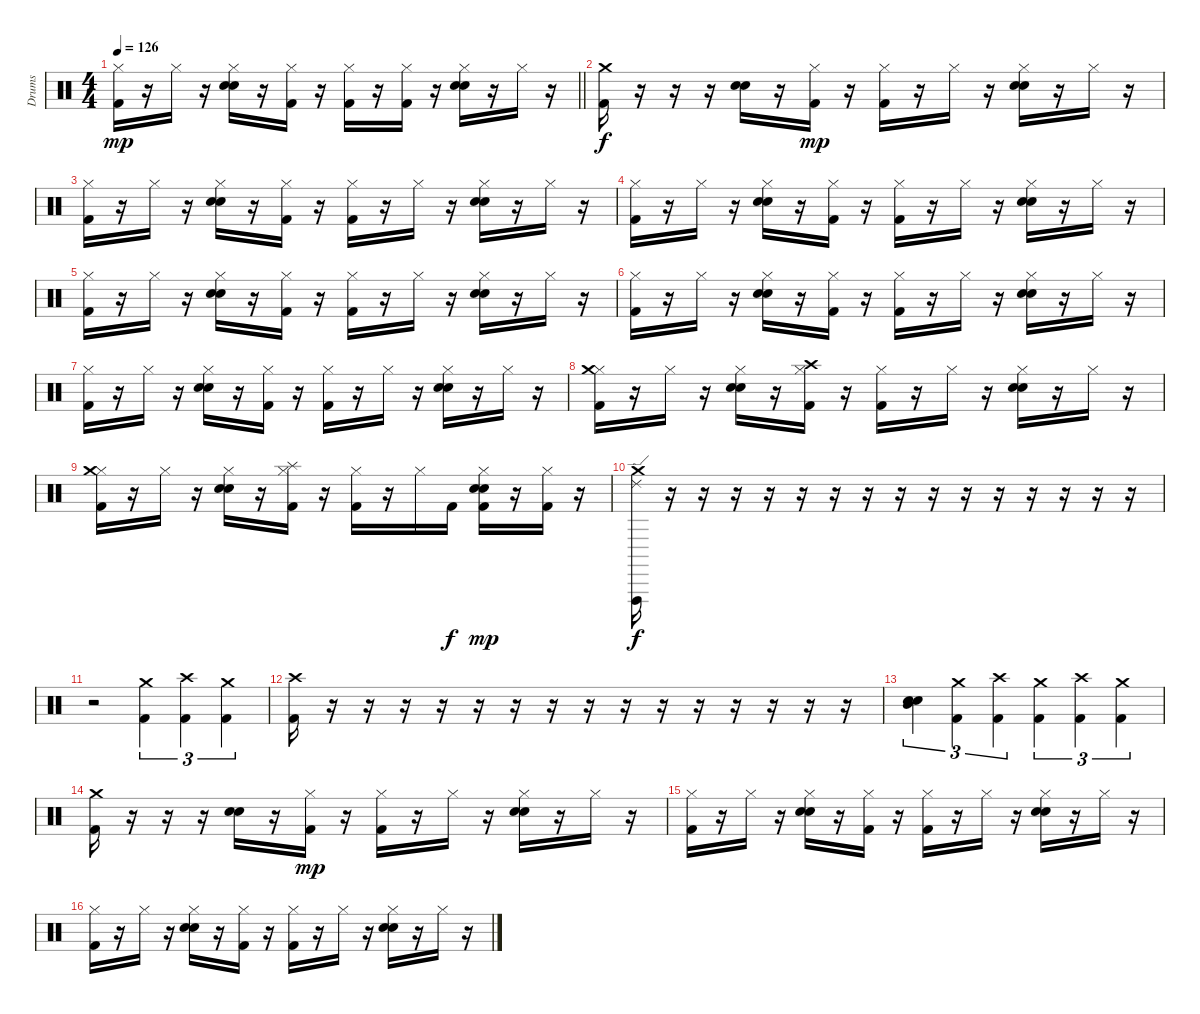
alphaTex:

\track ("Drums" "Drums") {instrument percussion}
\staff {score}
\articulation defaults
\ts (4 4)
\tempo 126
\clef neutral
\barLineRight lightlight
\ks c
("Hi-Hat (closed)" "Kick (hit) 2").16{dy mp} r.16 "Hi-Hat (closed)".16 r.16 ("Hi-Hat (closed)" "Snare (hit) 2" "Electric Snare (hit)").16 r.16 ("Hi-Hat (closed)" "Kick (hit) 2").16 r.16 ("Hi-Hat (closed)" "Kick (hit) 2").16 r.16 ("Hi-Hat (closed)" "Kick (hit) 2").16 r.16 ("Hi-Hat (closed)" "Snare (hit) 2" "Electric Snare (hit)").16 r.16 "Hi-Hat (closed)".16 r.16 |
\section ("" "")
("Crash medium (hit)" "Kick (hit) 2").16{dy f} r.16 r.16 r.16 ("Snare (hit) 2" "Electric Snare (hit)").16 r.16 ("Hi-Hat (closed)" "Kick (hit) 2").16{dy mp} r.16 ("Hi-Hat (closed)" "Kick (hit) 2").16 r.16 "Hi-Hat (closed)".16 r.16 ("Hi-Hat (closed)" "Snare (hit) 2" "Electric Snare (hit)").16 r.16 "Hi-Hat (closed)".16 r.16 |
("Hi-Hat (closed)" "Kick (hit) 2").16 r.16 "Hi-Hat (closed)".16 r.16 ("Hi-Hat (closed)" "Snare (hit) 2" "Electric Snare (hit)").16 r.16 ("Hi-Hat (closed)" "Kick (hit) 2").16 r.16 ("Hi-Hat (closed)" "Kick (hit) 2").16 r.16 "Hi-Hat (closed)".16 r.16 ("Hi-Hat (closed)" "Snare (hit) 2" "Electric Snare (hit)").16 r.16 "Hi-Hat (closed)".16 r.16 |
("Hi-Hat (closed)" "Kick (hit) 2").16 r.16 "Hi-Hat (closed)".16 r.16 ("Hi-Hat (closed)" "Snare (hit) 2" "Electric Snare (hit)").16 r.16 ("Hi-Hat (closed)" "Kick (hit) 2").16 r.16 ("Hi-Hat (closed)" "Kick (hit) 2").16 r.16 "Hi-Hat (closed)".16 r.16 ("Hi-Hat (closed)" "Snare (hit) 2" "Electric Snare (hit)").16 r.16 "Hi-Hat (closed)".16 r.16 |
("Hi-Hat (closed)" "Kick (hit) 2").16 r.16 "Hi-Hat (closed)".16 r.16 ("Hi-Hat (closed)" "Snare (hit) 2" "Electric Snare (hit)").16 r.16 ("Hi-Hat (closed)" "Kick (hit) 2").16 r.16 ("Hi-Hat (closed)" "Kick (hit) 2").16 r.16 "Hi-Hat (closed)".16 r.16 ("Hi-Hat (closed)" "Snare (hit) 2" "Electric Snare (hit)").16 r.16 "Hi-Hat (closed)".16 r.16 |
("Hi-Hat (closed)" "Kick (hit) 2").16 r.16 "Hi-Hat (closed)".16 r.16 ("Hi-Hat (closed)" "Snare (hit) 2" "Electric Snare (hit)").16 r.16 ("Hi-Hat (closed)" "Kick (hit) 2").16 r.16 ("Hi-Hat (closed)" "Kick (hit) 2").16 r.16 "Hi-Hat (closed)".16 r.16 ("Hi-Hat (closed)" "Snare (hit) 2" "Electric Snare (hit)").16 r.16 "Hi-Hat (closed)".16 r.16 |
("Hi-Hat (closed)" "Kick (hit) 2").16 r.16 "Hi-Hat (closed)".16 r.16 ("Hi-Hat (closed)" "Snare (hit) 2" "Electric Snare (hit)").16 r.16 ("Hi-Hat (closed)" "Kick (hit) 2").16 r.16 ("Hi-Hat (closed)" "Kick (hit) 2").16 r.16 "Hi-Hat (closed)".16 r.16 ("Hi-Hat (closed)" "Snare (hit) 2" "Electric Snare (hit)").16 r.16 "Hi-Hat (closed)".16 r.16 |
("Hi-Hat (closed)" "Crash medium (hit)" "Kick (hit) 2").16 r.16 "Hi-Hat (closed)".16 r.16 ("Hi-Hat (closed)" "Snare (hit) 2" "Electric Snare (hit)").16 r.16 ("Hi-Hat (closed)" "Crash high (hit)" "Kick (hit) 2").16 r.16 ("Hi-Hat (closed)" "Kick (hit) 2").16 r.16 "Hi-Hat (closed)".16 r.16 ("Hi-Hat (closed)" "Snare (hit) 2" "Electric Snare (hit)").16 r.16 "Hi-Hat (closed)".16 r.16 |
("Hi-Hat (closed)" "Crash medium (hit)" "Kick (hit) 2").16 r.16 "Hi-Hat (closed)".16 r.16 ("Hi-Hat (closed)" "Snare (hit) 2" "Electric Snare (hit)").16 r.16 ("Hi-Hat (closed)" "Splash (hit)" "Kick (hit) 2").16 r.16 ("Hi-Hat (closed)" "Kick (hit) 2").16 r.16 "Hi-Hat (closed)".16 "Kick (hit) 2".16{dy f} ("Hi-Hat (closed)" "Snare (hit) 2" "Electric Snare (hit)" "Kick (hit) 2").16{dy mp} r.16 ("Hi-Hat (closed)" "Kick (hit) 2").16 r.16 |
("Vibraslap (hit)" "Crash medium (hit)" "Ride (edge) 2").16{dy f} r.16 r.16 r.16 r.16 r.16 r.16 r.16 r.16 r.16 r.16 r.16 r.16 r.16 r.16 r.16 |
r.2 ("Crash medium (hit)" "Kick (hit) 2").4{tu (3 2)} ("Crash high (hit)" "Kick (hit) 2").4{tu (3 2)} ("Crash medium (hit)" "Kick (hit) 2").4{tu (3 2)} |
("Crash high (hit)" "Kick (hit) 2").16 r.16 r.16 r.16 r.16 r.16 r.16 r.16 r.16 r.16 r.16 r.16 r.16 r.16 r.16 r.16 |
("Mid Tom (hit)" "Snare (hit) 2" "Electric Snare (hit)").4{tu (3 2)} ("Crash medium (hit)" "Kick (hit) 2").4{tu (3 2)} ("Crash high (hit)" "Kick (hit) 2").4{tu (3 2)} ("Crash medium (hit)" "Kick (hit) 2").4{tu (3 2)} ("Crash high (hit)" "Kick (hit) 2").4{tu (3 2)} ("Crash medium (hit)" "Kick (hit) 2").4{tu (3 2)} |
("Crash medium (hit)" "Kick (hit) 2").16 r.16 r.16 r.16 ("Snare (hit) 2" "Electric Snare (hit)").16 r.16 ("Hi-Hat (closed)" "Kick (hit) 2").16{dy mp} r.16 ("Hi-Hat (closed)" "Kick (hit) 2").16 r.16 "Hi-Hat (closed)".16 r.16 ("Hi-Hat (closed)" "Snare (hit) 2" "Electric Snare (hit)").16 r.16 "Hi-Hat (closed)".16 r.16 |
("Hi-Hat (closed)" "Kick (hit) 2").16 r.16 "Hi-Hat (closed)".16 r.16 ("Hi-Hat (closed)" "Snare (hit) 2" "Electric Snare (hit)").16 r.16 ("Hi-Hat (closed)" "Kick (hit) 2").16 r.16 ("Hi-Hat (closed)" "Kick (hit) 2").16 r.16 "Hi-Hat (closed)".16 r.16 ("Hi-Hat (closed)" "Snare (hit) 2" "Electric Snare (hit)").16 r.16 "Hi-Hat (closed)".16 r.16 |
("Hi-Hat (closed)" "Kick (hit) 2").16 r.16 "Hi-Hat (closed)".16 r.16 ("Hi-Hat (closed)" "Snare (hit) 2" "Electric Snare (hit)").16 r.16 ("Hi-Hat (closed)" "Kick (hit) 2").16 r.16 ("Hi-Hat (closed)" "Kick (hit) 2").16 r.16 "Hi-Hat (closed)".16 r.16 ("Hi-Hat (closed)" "Snare (hit) 2" "Electric Snare (hit)").16 r.16 "Hi-Hat (closed)".16 r.16
